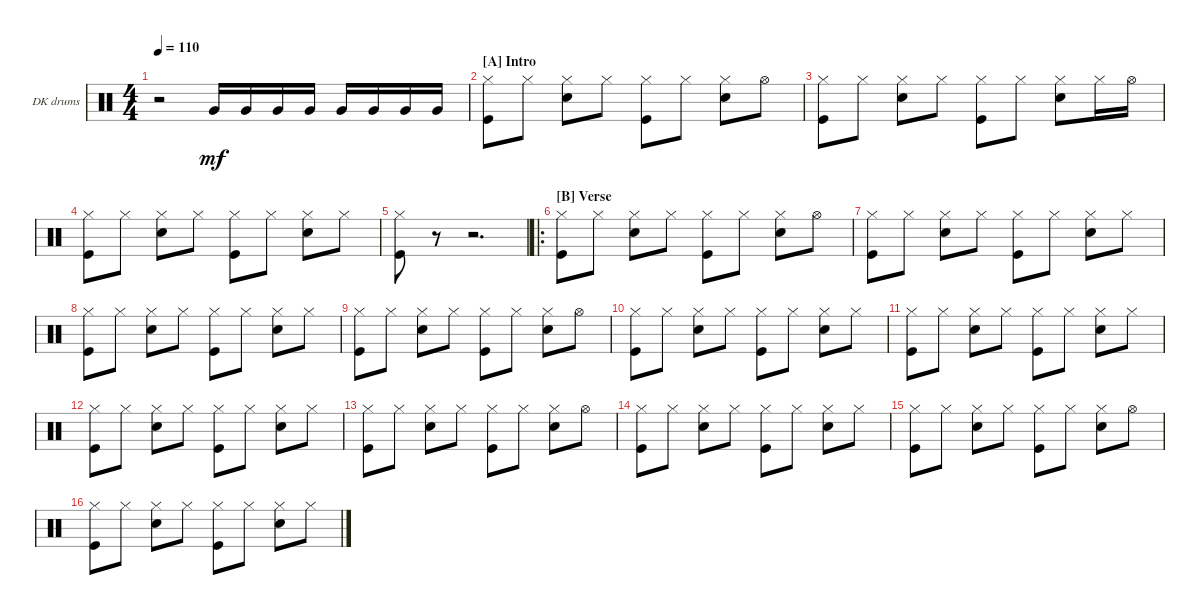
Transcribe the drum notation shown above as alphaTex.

\defaultSystemsLayout 4
\bracketExtendMode groupsimilarinstruments
\firstSystemTrackNameOrientation horizontal
\otherSystemsTrackNameOrientation horizontal
\track ("Dan Konopka" "DK drums") {instrument percussion}
\staff {score}
\articulation defaults
\ts (4 4)
\tempo 110
\clef neutral
\ks c
r.2{dy mf} "Very Low Tom (hit)".16 "Very Low Tom (hit)".16 "Very Low Tom (hit)".16 "Very Low Tom (hit)".16 "Very Low Tom (hit)".16 "Very Low Tom (hit)".16 "Very Low Tom (hit)".16 "Very Low Tom (hit)".16 |
\section ("A" "Intro")
("Hi-Hat (closed)" "Kick (hit)").8 "Hi-Hat (closed)".8 ("Hi-Hat (closed)" "Snare (hit) 2").8 "Hi-Hat (closed)".8 ("Hi-Hat (closed)" "Kick (hit)").8 "Hi-Hat (closed)".8 ("Hi-Hat (closed)" "Snare (hit) 2").8 "Hi-Hat (open)".8 |
("Hi-Hat (closed)" "Kick (hit)").8 "Hi-Hat (closed)".8 ("Hi-Hat (closed)" "Snare (hit) 2").8 "Hi-Hat (closed)".8 ("Hi-Hat (closed)" "Kick (hit)").8 "Hi-Hat (closed)".8 ("Hi-Hat (closed)" "Snare (hit) 2").8 "Hi-Hat (closed)".16 "Hi-Hat (open)".16 |
("Hi-Hat (closed)" "Kick (hit)").8 "Hi-Hat (closed)".8 ("Hi-Hat (closed)" "Snare (hit) 2").8 "Hi-Hat (closed)".8 ("Hi-Hat (closed)" "Kick (hit)").8 "Hi-Hat (closed)".8 ("Hi-Hat (closed)" "Snare (hit) 2").8 "Hi-Hat (closed)".8 |
("Hi-Hat (closed)" "Kick (hit)").8 r.8 r.2{d} |
\ro
\section ("B" "Verse")
("Hi-Hat (closed)" "Kick (hit)").8 "Hi-Hat (closed)".8 ("Hi-Hat (closed)" "Snare (hit) 2").8 "Hi-Hat (closed)".8 ("Hi-Hat (closed)" "Kick (hit)").8 "Hi-Hat (closed)".8 ("Hi-Hat (closed)" "Snare (hit) 2").8 "Hi-Hat (open)".8 |
("Hi-Hat (closed)" "Kick (hit)").8 "Hi-Hat (closed)".8 ("Hi-Hat (closed)" "Snare (hit) 2").8 "Hi-Hat (closed)".8 ("Hi-Hat (closed)" "Kick (hit)").8 "Hi-Hat (closed)".8 ("Hi-Hat (closed)" "Snare (hit) 2").8 "Hi-Hat (closed)".8 |
("Hi-Hat (closed)" "Kick (hit)").8 "Hi-Hat (closed)".8 ("Hi-Hat (closed)" "Snare (hit) 2").8 "Hi-Hat (closed)".8 ("Hi-Hat (closed)" "Kick (hit)").8 "Hi-Hat (closed)".8 ("Hi-Hat (closed)" "Snare (hit) 2").8 "Hi-Hat (closed)".8 |
("Hi-Hat (closed)" "Kick (hit)").8 "Hi-Hat (closed)".8 ("Hi-Hat (closed)" "Snare (hit) 2").8 "Hi-Hat (closed)".8 ("Hi-Hat (closed)" "Kick (hit)").8 "Hi-Hat (closed)".8 ("Hi-Hat (closed)" "Snare (hit) 2").8 "Hi-Hat (open)".8 |
("Hi-Hat (closed)" "Kick (hit)").8 "Hi-Hat (closed)".8 ("Hi-Hat (closed)" "Snare (hit) 2").8 "Hi-Hat (closed)".8 ("Hi-Hat (closed)" "Kick (hit)").8 "Hi-Hat (closed)".8 ("Hi-Hat (closed)" "Snare (hit) 2").8 "Hi-Hat (closed)".8 |
("Hi-Hat (closed)" "Kick (hit)").8 "Hi-Hat (closed)".8 ("Hi-Hat (closed)" "Snare (hit) 2").8 "Hi-Hat (closed)".8 ("Hi-Hat (closed)" "Kick (hit)").8 "Hi-Hat (closed)".8 ("Hi-Hat (closed)" "Snare (hit) 2").8 "Hi-Hat (closed)".8 |
("Hi-Hat (closed)" "Kick (hit)").8 "Hi-Hat (closed)".8 ("Hi-Hat (closed)" "Snare (hit) 2").8 "Hi-Hat (closed)".8 ("Hi-Hat (closed)" "Kick (hit)").8 "Hi-Hat (closed)".8 ("Hi-Hat (closed)" "Snare (hit) 2").8 "Hi-Hat (closed)".8 |
("Hi-Hat (closed)" "Kick (hit)").8 "Hi-Hat (closed)".8 ("Hi-Hat (closed)" "Snare (hit) 2").8 "Hi-Hat (closed)".8 ("Hi-Hat (closed)" "Kick (hit)").8 "Hi-Hat (closed)".8 ("Hi-Hat (closed)" "Snare (hit) 2").8 "Hi-Hat (open)".8 |
("Hi-Hat (closed)" "Kick (hit)").8 "Hi-Hat (closed)".8 ("Hi-Hat (closed)" "Snare (hit) 2").8 "Hi-Hat (closed)".8 ("Hi-Hat (closed)" "Kick (hit)").8 "Hi-Hat (closed)".8 ("Hi-Hat (closed)" "Snare (hit) 2").8 "Hi-Hat (closed)".8 |
("Hi-Hat (closed)" "Kick (hit)").8 "Hi-Hat (closed)".8 ("Hi-Hat (closed)" "Snare (hit) 2").8 "Hi-Hat (closed)".8 ("Hi-Hat (closed)" "Kick (hit)").8 "Hi-Hat (closed)".8 ("Hi-Hat (closed)" "Snare (hit) 2").8 "Hi-Hat (open)".8 |
("Hi-Hat (closed)" "Kick (hit)").8 "Hi-Hat (closed)".8 ("Hi-Hat (closed)" "Snare (hit) 2").8 "Hi-Hat (closed)".8 ("Hi-Hat (closed)" "Kick (hit)").8 "Hi-Hat (closed)".8 ("Hi-Hat (closed)" "Snare (hit) 2").8 "Hi-Hat (closed)".8
